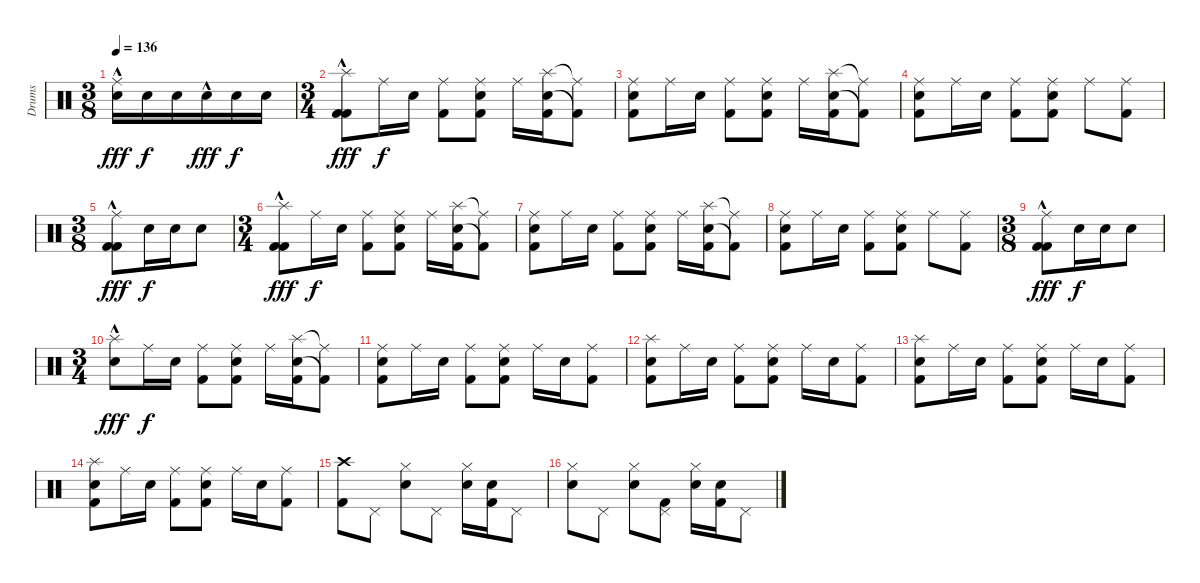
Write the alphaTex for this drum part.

\track ("Drums" "Drums") {instrument percussion}
\staff {score}
\articulation defaults
\ts (3 8)
\tempo 136
\clef neutral
\ks c
("Ride (middle)" "Electric Snare (hit)"{hac}).16{dy fff} "Electric Snare (hit)".16{dy f} "Electric Snare (hit)".16 "Electric Snare (hit)"{hac}.16{dy fff} "Electric Snare (hit)".16{dy f} "Electric Snare (hit)".16 |
\ts (3 4)
("Splash (hit)" "Kick (hit) 2"{hac} "Kick (hit) 2"{hac}).8{dy fff} "Ride (middle)".16{dy f} "Electric Snare (hit)".16 ("Ride (middle)" "Kick (hit) 2").8 ("Ride (middle)" "Electric Snare (hit)" "Kick (hit) 2").8 "Ride (middle)".16 ("Splash (hit)" "Electric Snare (hit)" "Kick (hit) 2").16 ("Ride (middle)"{t} "Kick (hit) 2"{t}).8 |
("Ride (middle)" "Electric Snare (hit)" "Kick (hit) 2").8 "Ride (middle)".16 "Electric Snare (hit)".16 ("Ride (middle)" "Kick (hit) 2").8 ("Ride (middle)" "Electric Snare (hit)" "Kick (hit) 2").8 "Ride (middle)".16 ("Splash (hit)" "Electric Snare (hit)" "Kick (hit) 2").16 ("Ride (middle)"{t} "Kick (hit) 2"{t}).8 |
("Ride (middle)" "Electric Snare (hit)" "Kick (hit) 2").8 "Ride (middle)".16 "Electric Snare (hit)".16 ("Ride (middle)" "Kick (hit) 2").8 ("Ride (middle)" "Electric Snare (hit)" "Kick (hit) 2").8 "Ride (middle)".8 ("Ride (middle)" "Kick (hit) 2").8 |
\ts (3 8)
("Ride (middle)" "Kick (hit) 2"{hac} "Kick (hit) 2"{hac}).8{dy fff} "Electric Snare (hit)".16{dy f} "Electric Snare (hit)".16 "Electric Snare (hit)".8 |
\ts (3 4)
("Splash (hit)" "Kick (hit) 2"{hac} "Kick (hit) 2"{hac}).8{dy fff} "Ride (middle)".16{dy f} "Electric Snare (hit)".16 ("Ride (middle)" "Kick (hit) 2").8 ("Ride (middle)" "Electric Snare (hit)" "Kick (hit) 2").8 "Ride (middle)".16 ("Splash (hit)" "Electric Snare (hit)" "Kick (hit) 2").16 ("Ride (middle)"{t} "Kick (hit) 2"{t}).8 |
("Ride (middle)" "Electric Snare (hit)" "Kick (hit) 2").8 "Ride (middle)".16 "Electric Snare (hit)".16 ("Ride (middle)" "Kick (hit) 2").8 ("Ride (middle)" "Electric Snare (hit)" "Kick (hit) 2").8 "Ride (middle)".16 ("Splash (hit)" "Electric Snare (hit)" "Kick (hit) 2").16 ("Ride (middle)"{t} "Kick (hit) 2"{t}).8 |
("Ride (middle)" "Electric Snare (hit)" "Kick (hit) 2").8 "Ride (middle)".16 "Electric Snare (hit)".16 ("Ride (middle)" "Kick (hit) 2").8 ("Ride (middle)" "Electric Snare (hit)" "Kick (hit) 2").8 "Ride (middle)".8 ("Ride (middle)" "Kick (hit) 2").8 |
\ts (3 8)
("Ride (middle)" "Kick (hit) 2"{hac} "Kick (hit) 2"{hac}).8{dy fff} "Electric Snare (hit)".16{dy f} "Electric Snare (hit)".16 "Electric Snare (hit)".8 |
\ts (3 4)
("Splash (hit)" "Electric Snare (hit)"{hac}).8{dy fff} "Ride (middle)".16{dy f} "Electric Snare (hit)".16 ("Ride (middle)" "Kick (hit) 2").8 ("Ride (middle)" "Electric Snare (hit)" "Kick (hit) 2").8 "Ride (middle)".16 ("Splash (hit)" "Electric Snare (hit)" "Kick (hit) 2").16 ("Ride (middle)"{t} "Kick (hit) 2"{t}).8 |
("Ride (middle)" "Electric Snare (hit)" "Kick (hit) 2").8 "Ride (middle)".16 "Electric Snare (hit)".16 ("Ride (middle)" "Kick (hit) 2").8 ("Ride (middle)" "Electric Snare (hit)" "Kick (hit) 2").8 "Ride (middle)".16 "Electric Snare (hit)".16 ("Ride (middle)" "Kick (hit) 2").8 |
("Splash (hit)" "Electric Snare (hit)" "Kick (hit) 2").8 "Ride (middle)".16 "Electric Snare (hit)".16 ("Ride (middle)" "Kick (hit) 2").8 ("Ride (middle)" "Electric Snare (hit)" "Kick (hit) 2").8 "Ride (middle)".16 "Electric Snare (hit)".16 ("Ride (middle)" "Kick (hit) 2").8 |
("Splash (hit)" "Electric Snare (hit)" "Kick (hit) 2").8 "Ride (middle)".16 "Electric Snare (hit)".16 ("Ride (middle)" "Kick (hit) 2").8 ("Ride (middle)" "Electric Snare (hit)" "Kick (hit) 2").8 "Ride (middle)".16 "Electric Snare (hit)".16 ("Ride (middle)" "Kick (hit) 2").8 |
("Splash (hit)" "Electric Snare (hit)" "Kick (hit) 2").8 "Ride (middle)".16 "Electric Snare (hit)".16 ("Ride (middle)" "Kick (hit) 2").8 ("Ride (middle)" "Electric Snare (hit)" "Kick (hit) 2").8 "Ride (middle)".16 "Electric Snare (hit)".16 ("Ride (middle)" "Kick (hit) 2").8 |
("Crash high (hit)" "Kick (hit) 2").8 "Pedal Hi-Hat (hit)".8 ("Hi-Hat (closed)" "Electric Snare (hit)").8 "Pedal Hi-Hat (hit)".8 ("Hi-Hat (closed)" "Electric Snare (hit)").16 ("Electric Snare (hit)" "Kick (hit) 2").16 "Pedal Hi-Hat (hit)".8 |
("Hi-Hat (closed)" "Electric Snare (hit)").8 "Pedal Hi-Hat (hit)".8 ("Hi-Hat (closed)" "Electric Snare (hit)").8 ("Pedal Hi-Hat (hit)" "Kick (hit) 2").8 ("Hi-Hat (closed)" "Electric Snare (hit)").16 ("Electric Snare (hit)" "Kick (hit) 2").16 "Pedal Hi-Hat (hit)".8
